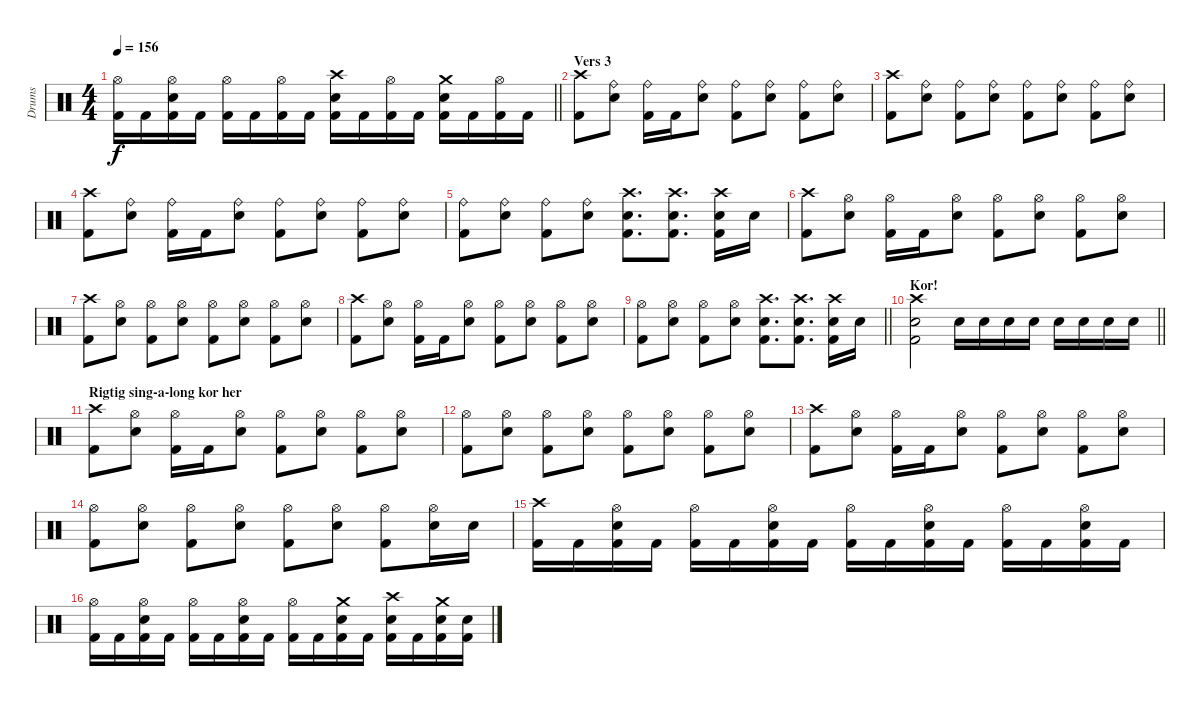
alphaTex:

\track ("Drums" "Drums") {instrument percussion}
\staff {score}
\articulation defaults
\ts (4 4)
\tempo 156
\clef neutral
\barLineRight lightlight
\ks c
("Hi-Hat (open)" "Kick (hit) 2").16{dy f} "Kick (hit) 2".16 ("Hi-Hat (open)" "Snare (hit) 2" "Kick (hit) 2").16 "Kick (hit) 2".16 ("Hi-Hat (open)" "Kick (hit) 2").16 "Kick (hit) 2".16 ("Hi-Hat (open)" "Kick (hit) 2").16 "Kick (hit) 2".16 ("Crash high (hit)" "Snare (hit) 2" "Kick (hit) 2").16 "Kick (hit) 2".16 ("Hi-Hat (open)" "Kick (hit) 2").16 "Kick (hit) 2".16 ("Crash medium (hit)" "Snare (hit) 2" "Kick (hit) 2").16 "Kick (hit) 2".16 ("Hi-Hat (open)" "Kick (hit) 2").16 "Kick (hit) 2".16 |
\section ("" "Vers 3")
("Crash high (hit)" "Kick (hit) 2").8 ("Ride (bell)" "Snare (hit) 2").8 ("Ride (bell)" "Kick (hit) 2").16 "Kick (hit) 2".16 ("Ride (bell)" "Snare (hit) 2").8 ("Ride (bell)" "Kick (hit) 2").8 ("Ride (bell)" "Snare (hit) 2").8 ("Ride (bell)" "Kick (hit) 2").8 ("Ride (bell)" "Snare (hit) 2").8 |
("Crash high (hit)" "Kick (hit) 2").8 ("Ride (bell)" "Snare (hit) 2").8 ("Ride (bell)" "Kick (hit) 2").8 ("Ride (bell)" "Snare (hit) 2").8 ("Ride (bell)" "Kick (hit) 2").8 ("Ride (bell)" "Snare (hit) 2").8 ("Ride (bell)" "Kick (hit) 2").8 ("Ride (bell)" "Snare (hit) 2").8 |
("Crash high (hit)" "Kick (hit) 2").8 ("Ride (bell)" "Snare (hit) 2").8 ("Ride (bell)" "Kick (hit) 2").16 "Kick (hit) 2".16 ("Ride (bell)" "Snare (hit) 2").8 ("Ride (bell)" "Kick (hit) 2").8 ("Ride (bell)" "Snare (hit) 2").8 ("Ride (bell)" "Kick (hit) 2").8 ("Ride (bell)" "Snare (hit) 2").8 |
("Ride (bell)" "Kick (hit) 2").8 ("Ride (bell)" "Snare (hit) 2").8 ("Ride (bell)" "Kick (hit) 2").8 ("Ride (bell)" "Snare (hit) 2").8 ("Crash high (hit)" "Snare (hit) 2" "Kick (hit) 2").8{d} ("Crash high (hit)" "Snare (hit) 2" "Kick (hit) 2").8{d} ("Crash high (hit)" "Snare (hit) 2" "Kick (hit) 2").16 "Snare (hit) 2".16 |
("Crash high (hit)" "Kick (hit) 2").8 ("Hi-Hat (open)" "Snare (hit) 2").8 ("Hi-Hat (open)" "Kick (hit) 2").16 "Kick (hit) 2".16 ("Hi-Hat (open)" "Snare (hit) 2").8 ("Hi-Hat (open)" "Kick (hit) 2").8 ("Hi-Hat (open)" "Snare (hit) 2").8 ("Hi-Hat (open)" "Kick (hit) 2").8 ("Hi-Hat (open)" "Snare (hit) 2").8 |
("Crash high (hit)" "Kick (hit) 2").8 ("Hi-Hat (open)" "Snare (hit) 2").8 ("Hi-Hat (open)" "Kick (hit) 2").8 ("Hi-Hat (open)" "Snare (hit) 2").8 ("Hi-Hat (open)" "Kick (hit) 2").8 ("Hi-Hat (open)" "Snare (hit) 2").8 ("Hi-Hat (open)" "Kick (hit) 2").8 ("Hi-Hat (open)" "Snare (hit) 2").8 |
("Crash high (hit)" "Kick (hit) 2").8 ("Hi-Hat (open)" "Snare (hit) 2").8 ("Hi-Hat (open)" "Kick (hit) 2").16 "Kick (hit) 2".16 ("Hi-Hat (open)" "Snare (hit) 2").8 ("Hi-Hat (open)" "Kick (hit) 2").8 ("Hi-Hat (open)" "Snare (hit) 2").8 ("Hi-Hat (open)" "Kick (hit) 2").8 ("Hi-Hat (open)" "Snare (hit) 2").8 |
\barLineRight lightlight
("Hi-Hat (open)" "Kick (hit) 2").8 ("Hi-Hat (open)" "Snare (hit) 2").8 ("Hi-Hat (open)" "Kick (hit) 2").8 ("Hi-Hat (open)" "Snare (hit) 2").8 ("Crash high (hit)" "Snare (hit) 2" "Kick (hit) 2").8{d} ("Crash high (hit)" "Snare (hit) 2" "Kick (hit) 2").8{d} ("Crash high (hit)" "Snare (hit) 2" "Kick (hit) 2").16 "Snare (hit) 2".16 |
\section ("" "Kor!")
\barLineRight lightlight
("Crash high (hit)" "Snare (hit) 2" "Kick (hit) 2").2 "Snare (hit) 2".16 "Snare (hit) 2".16 "Snare (hit) 2".16 "Snare (hit) 2".16 "Snare (hit) 2".16 "Snare (hit) 2".16 "Snare (hit) 2".16 "Snare (hit) 2".16 |
\section ("" "Rigtig sing-a-long kor her")
("Crash high (hit)" "Kick (hit) 2").8 ("Hi-Hat (open)" "Snare (hit) 2").8 ("Hi-Hat (open)" "Kick (hit) 2").16 "Kick (hit) 2".16 ("Hi-Hat (open)" "Snare (hit) 2").8 ("Hi-Hat (open)" "Kick (hit) 2").8 ("Hi-Hat (open)" "Snare (hit) 2").8 ("Hi-Hat (open)" "Kick (hit) 2").8 ("Hi-Hat (open)" "Snare (hit) 2").8 |
("Hi-Hat (open)" "Kick (hit) 2").8 ("Hi-Hat (open)" "Snare (hit) 2").8 ("Hi-Hat (open)" "Kick (hit) 2").8 ("Hi-Hat (open)" "Snare (hit) 2").8 ("Hi-Hat (open)" "Kick (hit) 2").8 ("Hi-Hat (open)" "Snare (hit) 2").8 ("Hi-Hat (open)" "Kick (hit) 2").8 ("Hi-Hat (open)" "Snare (hit) 2").8 |
("Crash high (hit)" "Kick (hit) 2").8 ("Hi-Hat (open)" "Snare (hit) 2").8 ("Hi-Hat (open)" "Kick (hit) 2").16 "Kick (hit) 2".16 ("Hi-Hat (open)" "Snare (hit) 2").8 ("Hi-Hat (open)" "Kick (hit) 2").8 ("Hi-Hat (open)" "Snare (hit) 2").8 ("Hi-Hat (open)" "Kick (hit) 2").8 ("Hi-Hat (open)" "Snare (hit) 2").8 |
("Hi-Hat (open)" "Kick (hit) 2").8 ("Hi-Hat (open)" "Snare (hit) 2").8 ("Hi-Hat (open)" "Kick (hit) 2").8 ("Hi-Hat (open)" "Snare (hit) 2").8 ("Hi-Hat (open)" "Kick (hit) 2").8 ("Hi-Hat (open)" "Snare (hit) 2").8 ("Hi-Hat (open)" "Kick (hit) 2").8 ("Hi-Hat (open)" "Snare (hit) 2").16 "Snare (hit) 2".16 |
("Crash high (hit)" "Kick (hit) 2").16 "Kick (hit) 2".16 ("Hi-Hat (open)" "Snare (hit) 2" "Kick (hit) 2").16 "Kick (hit) 2".16 ("Hi-Hat (open)" "Kick (hit) 2").16 "Kick (hit) 2".16 ("Hi-Hat (open)" "Snare (hit) 2" "Kick (hit) 2").16 "Kick (hit) 2".16 ("Hi-Hat (open)" "Kick (hit) 2").16 "Kick (hit) 2".16 ("Hi-Hat (open)" "Snare (hit) 2" "Kick (hit) 2").16 "Kick (hit) 2".16 ("Hi-Hat (open)" "Kick (hit) 2").16 "Kick (hit) 2".16 ("Hi-Hat (open)" "Snare (hit) 2" "Kick (hit) 2").16 "Kick (hit) 2".16 |
("Hi-Hat (open)" "Kick (hit) 2").16 "Kick (hit) 2".16 ("Hi-Hat (open)" "Snare (hit) 2" "Kick (hit) 2").16 "Kick (hit) 2".16 ("Hi-Hat (open)" "Kick (hit) 2").16 "Kick (hit) 2".16 ("Hi-Hat (open)" "Snare (hit) 2" "Kick (hit) 2").16 "Kick (hit) 2".16 ("Hi-Hat (open)" "Kick (hit) 2").16 "Kick (hit) 2".16 ("Crash medium (hit)" "Snare (hit) 2" "Kick (hit) 2").16 "Kick (hit) 2".16 ("Crash high (hit)" "Snare (hit) 2" "Kick (hit) 2").16 "Kick (hit) 2".16 ("Crash medium (hit)" "Snare (hit) 2" "Kick (hit) 2").16 ("Snare (hit) 2" "Kick (hit) 2").16
